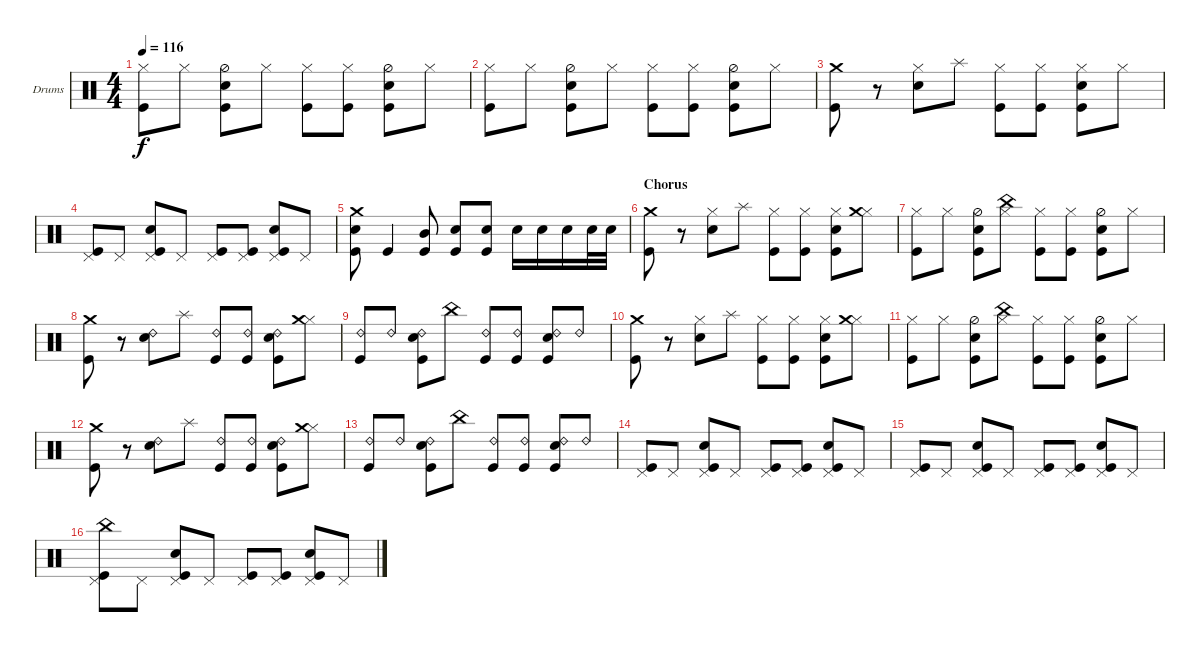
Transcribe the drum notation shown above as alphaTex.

\bracketExtendMode groupsimilarinstruments
\firstSystemTrackNameOrientation horizontal
\otherSystemsTrackNameOrientation horizontal
\track ("Mick Brown" "Drums") {instrument percussion}
\staff {score}
\articulation defaults
\ts (4 4)
\tempo 116
\clef neutral
\ks c
("Kick (hit)" "Hi-Hat (closed)").8{dy f} "Hi-Hat (closed)".8 ("Snare (hit) 2" "Kick (hit)" "Hi-Hat (half)").8 "Hi-Hat (closed)".8 ("Kick (hit)" "Hi-Hat (closed)").8 ("Kick (hit)" "Hi-Hat (closed)").8 ("Snare (hit) 2" "Kick (hit)" "Hi-Hat (half)").8 "Hi-Hat (closed)".8 |
("Kick (hit)" "Hi-Hat (closed)").8 "Hi-Hat (closed)".8 ("Snare (hit) 2" "Kick (hit)" "Hi-Hat (half)").8 "Hi-Hat (closed)".8 ("Kick (hit)" "Hi-Hat (closed)").8 ("Kick (hit)" "Hi-Hat (closed)").8 ("Snare (hit) 2" "Kick (hit)" "Hi-Hat (half)").8 "Hi-Hat (closed)".8 |
("Kick (hit)" "Crash medium (hit)").8 r.8 ("Snare (hit) 2" "Hi-Hat (closed)").8 "Splash (hit)".8 ("Kick (hit)" "Hi-Hat (closed)").8 ("Kick (hit)" "Hi-Hat (closed)").8 ("Snare (hit) 2" "Kick (hit)" "Hi-Hat (closed)").8 "Hi-Hat (closed)".8 |
("Pedal Hi-Hat (hit)" "Kick (hit)").8 "Pedal Hi-Hat (hit)".8 ("Pedal Hi-Hat (hit)" "Snare (hit) 2" "Kick (hit)").8 "Pedal Hi-Hat (hit)".8 ("Pedal Hi-Hat (hit)" "Kick (hit)").8 ("Pedal Hi-Hat (hit)" "Kick (hit)").8 ("Pedal Hi-Hat (hit)" "Snare (hit) 2" "Kick (hit)").8 "Pedal Hi-Hat (hit)".8 |
("Snare (hit) 2" "Kick (hit)" "Crash medium (hit)").8 "Kick (hit)".4 ("Mid Tom (hit)" "Kick (hit)").8 ("Snare (hit) 2" "Kick (hit)").8 ("Snare (hit) 2" "Kick (hit)").8 "Snare (hit) 2".16 "Snare (hit) 2".16 "Snare (hit) 2".16 "Snare (hit) 2".32 "Snare (hit) 2".32 |
\section ("" "Chorus")
("Kick (hit)" "Crash medium (hit)").8 r.8 ("Snare (hit) 2" "Hi-Hat (closed)").8 "Splash (hit)".8 ("Kick (hit)" "Hi-Hat (closed)").8 ("Kick (hit)" "Hi-Hat (closed)").8 ("Snare (hit) 2" "Kick (hit)" "Hi-Hat (closed)").8 ("Hi-Hat (closed)" "Crash medium (hit)").8 |
("Kick (hit)" "Hi-Hat (closed)").8 "Hi-Hat (closed)".8 ("Snare (hit) 2" "Kick (hit)" "Hi-Hat (half)").8 ("Hi-Hat (closed)" "China (hit)").8 ("Kick (hit)" "Hi-Hat (closed)").8 ("Kick (hit)" "Hi-Hat (closed)").8 ("Snare (hit) 2" "Kick (hit)" "Hi-Hat (half)").8 "Hi-Hat (closed)".8 |
("Kick (hit)" "Crash medium (hit)").8 r.8 ("Snare (hit) 2" "Ride (bell) 2").8 "Splash (hit)".8 ("Kick (hit)" "Ride (bell) 2").8 ("Kick (hit)" "Ride (bell) 2").8 ("Snare (hit) 2" "Kick (hit)" "Ride (bell) 2").8 ("Hi-Hat (closed)" "Crash medium (hit)").8 |
("Kick (hit)" "Ride (bell) 2").8 "Ride (bell) 2".8 ("Snare (hit) 2" "Kick (hit)" "Ride (bell) 2").8 "China (hit)".8 ("Kick (hit)" "Ride (bell) 2").8 ("Kick (hit)" "Ride (bell) 2").8 ("Snare (hit) 2" "Kick (hit)" "Ride (bell) 2").8 "Ride (bell) 2".8 |
("Kick (hit)" "Crash medium (hit)").8 r.8 ("Snare (hit) 2" "Hi-Hat (closed)").8 "Splash (hit)".8 ("Kick (hit)" "Hi-Hat (closed)").8 ("Kick (hit)" "Hi-Hat (closed)").8 ("Snare (hit) 2" "Kick (hit)" "Hi-Hat (closed)").8 ("Hi-Hat (closed)" "Crash medium (hit)").8 |
("Kick (hit)" "Hi-Hat (closed)").8 "Hi-Hat (closed)".8 ("Snare (hit) 2" "Kick (hit)" "Hi-Hat (half)").8 ("Hi-Hat (closed)" "China (hit)").8 ("Kick (hit)" "Hi-Hat (closed)").8 ("Kick (hit)" "Hi-Hat (closed)").8 ("Snare (hit) 2" "Kick (hit)" "Hi-Hat (half)").8 "Hi-Hat (closed)".8 |
("Kick (hit)" "Crash medium (hit)").8 r.8 ("Snare (hit) 2" "Ride (bell) 2").8 "Splash (hit)".8 ("Kick (hit)" "Ride (bell) 2").8 ("Kick (hit)" "Ride (bell) 2").8 ("Snare (hit) 2" "Kick (hit)" "Ride (bell) 2").8 ("Hi-Hat (closed)" "Crash medium (hit)").8 |
("Kick (hit)" "Ride (bell) 2").8 "Ride (bell) 2".8 ("Snare (hit) 2" "Kick (hit)" "Ride (bell) 2").8 "China (hit)".8 ("Kick (hit)" "Ride (bell) 2").8 ("Kick (hit)" "Ride (bell) 2").8 ("Snare (hit) 2" "Kick (hit)" "Ride (bell) 2").8 "Ride (bell) 2".8 |
("Pedal Hi-Hat (hit)" "Kick (hit)").8 "Pedal Hi-Hat (hit)".8 ("Pedal Hi-Hat (hit)" "Snare (hit) 2" "Kick (hit)").8 "Pedal Hi-Hat (hit)".8 ("Pedal Hi-Hat (hit)" "Kick (hit)").8 ("Pedal Hi-Hat (hit)" "Kick (hit)").8 ("Pedal Hi-Hat (hit)" "Snare (hit) 2" "Kick (hit)").8 "Pedal Hi-Hat (hit)".8 |
("Pedal Hi-Hat (hit)" "Kick (hit)").8 "Pedal Hi-Hat (hit)".8 ("Pedal Hi-Hat (hit)" "Snare (hit) 2" "Kick (hit)").8 "Pedal Hi-Hat (hit)".8 ("Pedal Hi-Hat (hit)" "Kick (hit)").8 ("Pedal Hi-Hat (hit)" "Kick (hit)").8 ("Pedal Hi-Hat (hit)" "Snare (hit) 2" "Kick (hit)").8 "Pedal Hi-Hat (hit)".8 |
("Pedal Hi-Hat (hit)" "Kick (hit)" "China (hit)").8 "Pedal Hi-Hat (hit)".8 ("Pedal Hi-Hat (hit)" "Snare (hit) 2" "Kick (hit)").8 "Pedal Hi-Hat (hit)".8 ("Pedal Hi-Hat (hit)" "Kick (hit)").8 ("Pedal Hi-Hat (hit)" "Kick (hit)").8 ("Pedal Hi-Hat (hit)" "Snare (hit) 2" "Kick (hit)").8 "Pedal Hi-Hat (hit)".8
